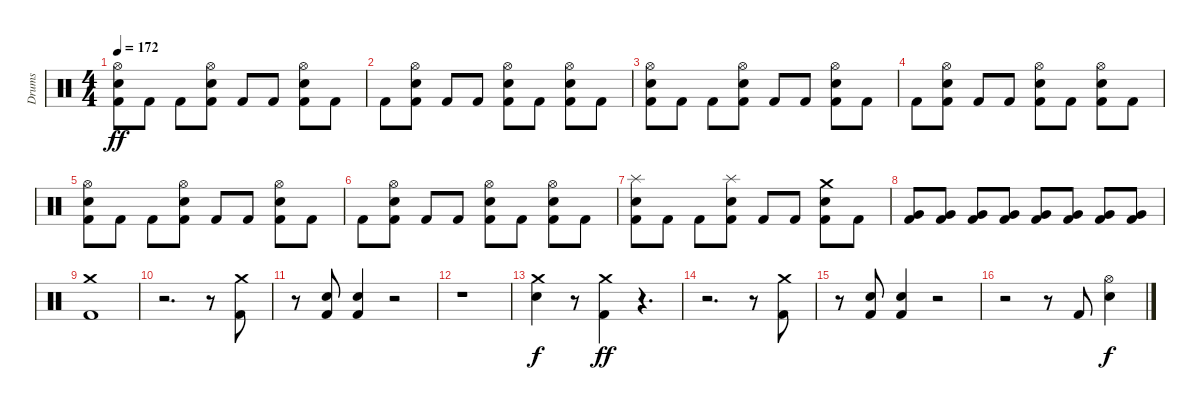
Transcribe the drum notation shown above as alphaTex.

\track ("Drums" "Drums") {instrument percussion}
\staff {score}
\articulation defaults
\ts (4 4)
\tempo 172
\clef neutral
\ks c
("Hi-Hat (open)" "Electric Snare (hit)" "Kick (hit) 2").8{dy ff} "Kick (hit) 2".8 "Kick (hit) 2".8 ("Hi-Hat (open)" "Electric Snare (hit)" "Kick (hit) 2").8 "Kick (hit) 2".8 "Kick (hit) 2".8 ("Hi-Hat (open)" "Electric Snare (hit)" "Kick (hit) 2").8 "Kick (hit) 2".8 |
"Kick (hit) 2".8 ("Hi-Hat (open)" "Electric Snare (hit)" "Kick (hit) 2").8 "Kick (hit) 2".8 "Kick (hit) 2".8 ("Hi-Hat (open)" "Electric Snare (hit)" "Kick (hit) 2").8 "Kick (hit) 2".8 ("Hi-Hat (open)" "Electric Snare (hit)" "Kick (hit) 2").8 "Kick (hit) 2".8 |
("Hi-Hat (open)" "Electric Snare (hit)" "Kick (hit) 2").8 "Kick (hit) 2".8 "Kick (hit) 2".8 ("Hi-Hat (open)" "Electric Snare (hit)" "Kick (hit) 2").8 "Kick (hit) 2".8 "Kick (hit) 2".8 ("Hi-Hat (open)" "Electric Snare (hit)" "Kick (hit) 2").8 "Kick (hit) 2".8 |
"Kick (hit) 2".8 ("Hi-Hat (open)" "Electric Snare (hit)" "Kick (hit) 2").8 "Kick (hit) 2".8 "Kick (hit) 2".8 ("Hi-Hat (open)" "Electric Snare (hit)" "Kick (hit) 2").8 "Kick (hit) 2".8 ("Hi-Hat (open)" "Electric Snare (hit)" "Kick (hit) 2").8 "Kick (hit) 2".8 |
("Hi-Hat (open)" "Electric Snare (hit)" "Kick (hit) 2").8 "Kick (hit) 2".8 "Kick (hit) 2".8 ("Hi-Hat (open)" "Electric Snare (hit)" "Kick (hit) 2").8 "Kick (hit) 2".8 "Kick (hit) 2".8 ("Hi-Hat (open)" "Electric Snare (hit)" "Kick (hit) 2").8 "Kick (hit) 2".8 |
"Kick (hit) 2".8 ("Hi-Hat (open)" "Electric Snare (hit)" "Kick (hit) 2").8 "Kick (hit) 2".8 "Kick (hit) 2".8 ("Hi-Hat (open)" "Electric Snare (hit)" "Kick (hit) 2").8 "Kick (hit) 2".8 ("Hi-Hat (open)" "Electric Snare (hit)" "Kick (hit) 2").8 "Kick (hit) 2".8 |
("Splash (hit)" "Electric Snare (hit)" "Kick (hit) 2").8 "Kick (hit) 2".8 "Kick (hit) 2".8 ("Splash (hit)" "Electric Snare (hit)" "Kick (hit) 2").8 "Kick (hit) 2".8 "Kick (hit) 2".8 ("Crash medium (hit)" "Electric Snare (hit)" "Kick (hit) 2").8 "Kick (hit) 2".8 |
("Very Low Tom (hit)" "Kick (hit) 2").8 ("Very Low Tom (hit)" "Kick (hit) 2").8 ("Very Low Tom (hit)" "Kick (hit) 2").8 ("Very Low Tom (hit)" "Kick (hit) 2").8 ("Very Low Tom (hit)" "Kick (hit) 2").8 ("Very Low Tom (hit)" "Kick (hit) 2").8 ("Very Low Tom (hit)" "Kick (hit) 2").8 ("Very Low Tom (hit)" "Kick (hit) 2").8 |
("Crash medium (hit)" "Kick (hit) 2").1 |
r.2{d} r.8 ("Crash medium (hit)" "Kick (hit) 2").8 |
r.8 ("Electric Snare (hit)" "Kick (hit) 2").8 ("Electric Snare (hit)" "Kick (hit) 2").4 r.2 |
r.1 |
("Crash medium (hit)" "Electric Snare (hit)").4{dy f} r.8 ("Crash medium (hit)" "Kick (hit) 2").4{dy ff} r.4{d} |
r.2{d} r.8 ("Crash medium (hit)" "Kick (hit) 2").8 |
r.8 ("Electric Snare (hit)" "Kick (hit) 2").8 ("Electric Snare (hit)" "Kick (hit) 2").4 r.2 |
r.2 r.8 "Kick (hit) 2".8 ("Hi-Hat (open)" "Electric Snare (hit)").4{dy f}
